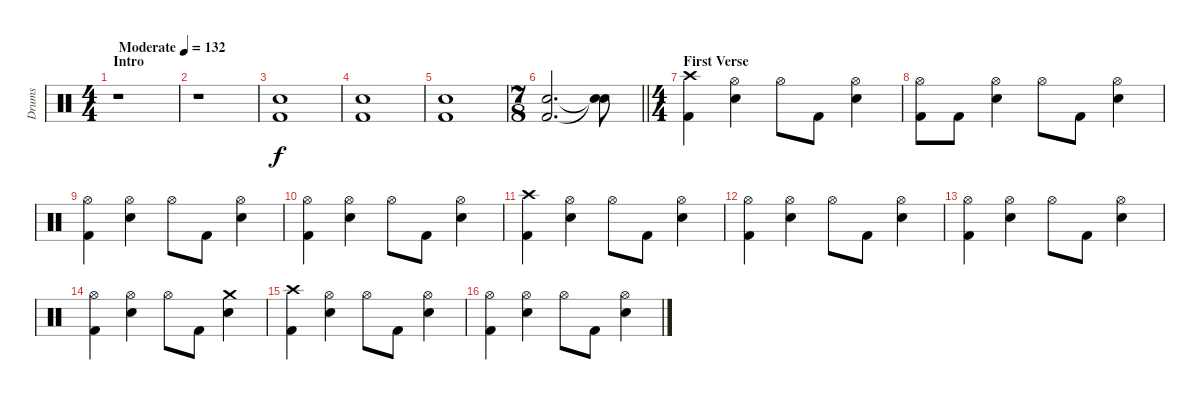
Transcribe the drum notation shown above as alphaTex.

\track ("Drums" "Drums") {instrument percussion}
\staff {score}
\articulation defaults
\ts (4 4)
\section ("" "Intro")
\tempo (132 "Moderate")
\clef neutral
\ks c
r.1{dy f} |
r.1 |
("Electric Snare (hit)" "Kick (hit) 2").1 |
("Electric Snare (hit)" "Kick (hit) 2").1 |
("Electric Snare (hit)" "Kick (hit) 2").1 |
\ts (7 8)
\barLineRight lightlight
("Electric Snare (hit)" "Kick (hit) 2").2{d} ("Snare (hit)"{t} "Snare (hit)"{t}).8 |
\ts (4 4)
\section ("" "First Verse")
("Crash high (hit)" "Kick (hit) 2").4 ("Hi-Hat (open)" "Electric Snare (hit)").4 "Hi-Hat (open)".8 "Kick (hit) 2".8 ("Hi-Hat (open)" "Electric Snare (hit)").4 |
("Hi-Hat (open)" "Kick (hit) 2").8 "Kick (hit) 2".8 ("Hi-Hat (open)" "Electric Snare (hit)").4 "Hi-Hat (open)".8 "Kick (hit) 2".8 ("Hi-Hat (open)" "Electric Snare (hit)").4 |
("Hi-Hat (open)" "Kick (hit) 2").4 ("Hi-Hat (open)" "Electric Snare (hit)").4 "Hi-Hat (open)".8 "Kick (hit) 2".8 ("Hi-Hat (open)" "Electric Snare (hit)").4 |
("Hi-Hat (open)" "Kick (hit) 2").4 ("Hi-Hat (open)" "Electric Snare (hit)").4 "Hi-Hat (open)".8 "Kick (hit) 2".8 ("Hi-Hat (open)" "Electric Snare (hit)").4 |
("Crash high (hit)" "Kick (hit) 2").4 ("Hi-Hat (open)" "Electric Snare (hit)").4 "Hi-Hat (open)".8 "Kick (hit) 2".8 ("Hi-Hat (open)" "Electric Snare (hit)").4 |
("Hi-Hat (open)" "Kick (hit) 2").4 ("Hi-Hat (open)" "Electric Snare (hit)").4 "Hi-Hat (open)".8 "Kick (hit) 2".8 ("Hi-Hat (open)" "Electric Snare (hit)").4 |
("Hi-Hat (open)" "Kick (hit) 2").4 ("Hi-Hat (open)" "Electric Snare (hit)").4 "Hi-Hat (open)".8 "Kick (hit) 2".8 ("Hi-Hat (open)" "Electric Snare (hit)").4 |
("Hi-Hat (open)" "Kick (hit) 2").4 ("Hi-Hat (open)" "Electric Snare (hit)").4 "Hi-Hat (open)".8 "Kick (hit) 2".8 ("Crash medium (hit)" "Electric Snare (hit)").4 |
("Crash high (hit)" "Kick (hit) 2").4 ("Hi-Hat (open)" "Electric Snare (hit)").4 "Hi-Hat (open)".8 "Kick (hit) 2".8 ("Hi-Hat (open)" "Electric Snare (hit)").4 |
("Hi-Hat (open)" "Kick (hit) 2").4 ("Hi-Hat (open)" "Electric Snare (hit)").4 "Hi-Hat (open)".8 "Kick (hit) 2".8 ("Hi-Hat (open)" "Electric Snare (hit)").4
